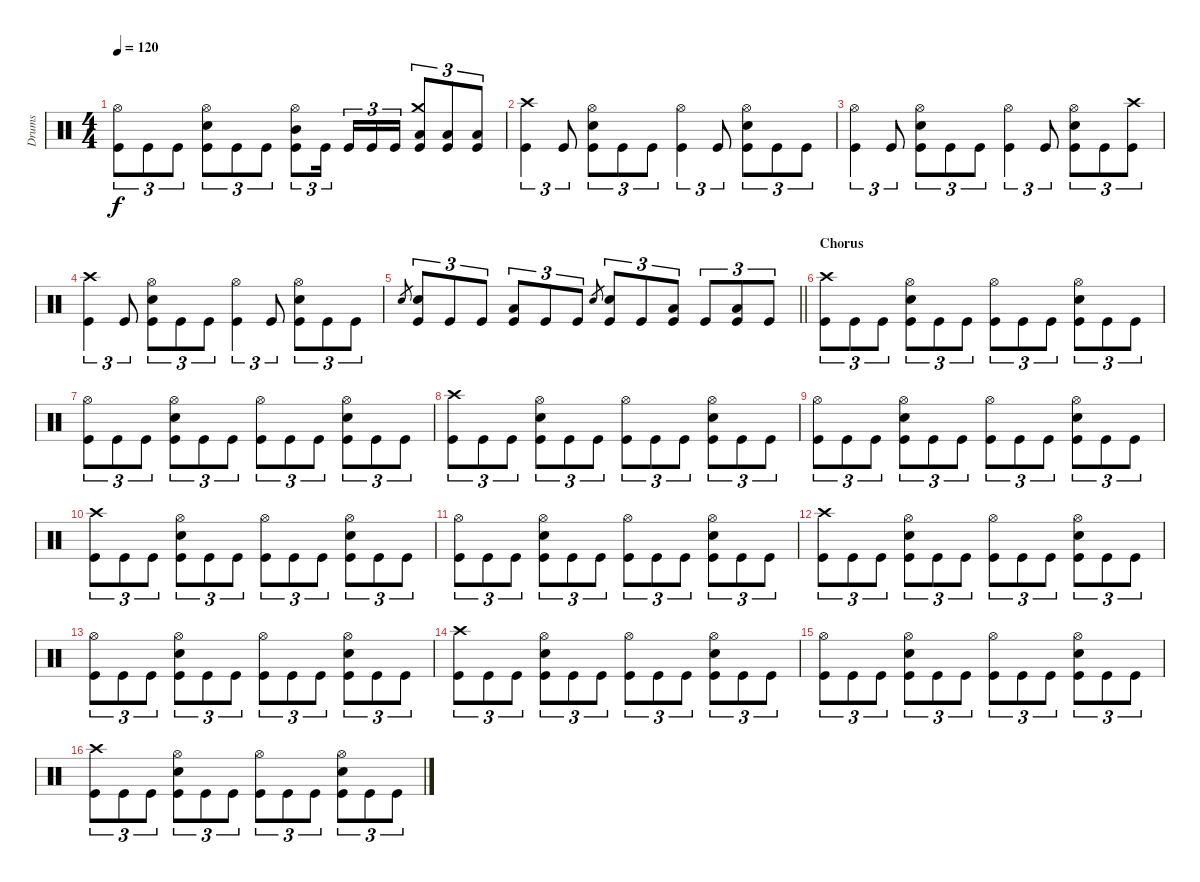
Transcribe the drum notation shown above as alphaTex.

\track ("Drums" "Drums") {instrument percussion}
\staff {score}
\articulation defaults
\ts (4 4)
\tempo 120
\clef neutral
\ks c
("Hi-Hat (open)" "Kick (hit)").8{tu (3 2) dy f} "Kick (hit)".8{tu (3 2)} "Kick (hit)".8{tu (3 2)} ("Hi-Hat (open)" "Snare (hit) 2" "Kick (hit)").8{tu (3 2)} "Kick (hit)".8{tu (3 2)} "Kick (hit)".8{tu (3 2)} ("Hi-Hat (open)" "Mid Tom (hit)" "Kick (hit)").8{tu (3 2)} "Kick (hit)".16{tu (3 2)} "Kick (hit)".16{tu (3 2)} "Kick (hit)".16{tu (3 2)} "Kick (hit)".16{tu (3 2)} ("Crash medium (hit)" "Low Tom (hit)" "Kick (hit)").8{tu (3 2)} ("Low Tom (hit)" "Kick (hit)").8{tu (3 2)} ("Low Tom (hit)" "Kick (hit)").8{tu (3 2)} |
("Crash high (hit)" "Kick (hit)").4{tu (3 2)} "Kick (hit)".8{tu (3 2)} ("Hi-Hat (open)" "Snare (hit) 2" "Kick (hit)").8{tu (3 2)} "Kick (hit)".8{tu (3 2)} "Kick (hit)".8{tu (3 2)} ("Hi-Hat (open)" "Kick (hit)").4{tu (3 2)} "Kick (hit)".8{tu (3 2)} ("Hi-Hat (open)" "Snare (hit) 2" "Kick (hit)").8{tu (3 2)} "Kick (hit)".8{tu (3 2)} "Kick (hit)".8{tu (3 2)} |
("Hi-Hat (open)" "Kick (hit)").4{tu (3 2)} "Kick (hit)".8{tu (3 2)} ("Hi-Hat (open)" "Snare (hit) 2" "Kick (hit)").8{tu (3 2)} "Kick (hit)".8{tu (3 2)} "Kick (hit)".8{tu (3 2)} ("Hi-Hat (open)" "Kick (hit)").4{tu (3 2)} "Kick (hit)".8{tu (3 2)} ("Hi-Hat (open)" "Snare (hit) 2" "Kick (hit)").8{tu (3 2)} "Kick (hit)".8{tu (3 2)} ("Crash high (hit)" "Kick (hit)").8{tu (3 2)} |
("Crash high (hit)" "Kick (hit)").4{tu (3 2)} "Kick (hit)".8{tu (3 2)} ("Hi-Hat (open)" "Snare (hit) 2" "Kick (hit)").8{tu (3 2)} "Kick (hit)".8{tu (3 2)} "Kick (hit)".8{tu (3 2)} ("Hi-Hat (open)" "Kick (hit)").4{tu (3 2)} "Kick (hit)".8{tu (3 2)} ("Hi-Hat (open)" "Snare (hit) 2" "Kick (hit)").8{tu (3 2)} "Kick (hit)".8{tu (3 2)} "Kick (hit)".8{tu (3 2)} |
\barLineRight lightlight "Snare (hit) 2".8{gr}
("Snare (hit) 2" "Kick (hit)").8{tu (3 2)} "Kick (hit)".8{tu (3 2)} "Kick (hit)".8{tu (3 2)} ("Low Tom (hit)" "Kick (hit)").8{tu (3 2)} "Kick (hit)".8{tu (3 2)} "Kick (hit)".8{tu (3 2)} "Snare (hit) 2".8{gr} ("Snare (hit) 2" "Kick (hit)").8{tu (3 2)} "Kick (hit)".8{tu (3 2)} ("Low Tom (hit)" "Kick (hit)").8{tu (3 2)} "Kick (hit)".8{tu (3 2)} ("Low Tom (hit)" "Kick (hit)").8{tu (3 2)} "Kick (hit)".8{tu (3 2)} |
\section ("" "Chorus")
("Crash high (hit)" "Kick (hit)").8{tu (3 2)} "Kick (hit)".8{tu (3 2)} "Kick (hit)".8{tu (3 2)} ("Hi-Hat (open)" "Snare (hit) 2" "Kick (hit)").8{tu (3 2)} "Kick (hit)".8{tu (3 2)} "Kick (hit)".8{tu (3 2)} ("Hi-Hat (open)" "Kick (hit)").8{tu (3 2)} "Kick (hit)".8{tu (3 2)} "Kick (hit)".8{tu (3 2)} ("Hi-Hat (open)" "Snare (hit) 2" "Kick (hit)").8{tu (3 2)} "Kick (hit)".8{tu (3 2)} "Kick (hit)".8{tu (3 2)} |
("Hi-Hat (open)" "Kick (hit)").8{tu (3 2)} "Kick (hit)".8{tu (3 2)} "Kick (hit)".8{tu (3 2)} ("Hi-Hat (open)" "Snare (hit) 2" "Kick (hit)").8{tu (3 2)} "Kick (hit)".8{tu (3 2)} "Kick (hit)".8{tu (3 2)} ("Hi-Hat (open)" "Kick (hit)").8{tu (3 2)} "Kick (hit)".8{tu (3 2)} "Kick (hit)".8{tu (3 2)} ("Hi-Hat (open)" "Snare (hit) 2" "Kick (hit)").8{tu (3 2)} "Kick (hit)".8{tu (3 2)} "Kick (hit)".8{tu (3 2)} |
("Crash high (hit)" "Kick (hit)").8{tu (3 2)} "Kick (hit)".8{tu (3 2)} "Kick (hit)".8{tu (3 2)} ("Hi-Hat (open)" "Snare (hit) 2" "Kick (hit)").8{tu (3 2)} "Kick (hit)".8{tu (3 2)} "Kick (hit)".8{tu (3 2)} ("Hi-Hat (open)" "Kick (hit)").8{tu (3 2)} "Kick (hit)".8{tu (3 2)} "Kick (hit)".8{tu (3 2)} ("Hi-Hat (open)" "Snare (hit) 2" "Kick (hit)").8{tu (3 2)} "Kick (hit)".8{tu (3 2)} "Kick (hit)".8{tu (3 2)} |
("Hi-Hat (open)" "Kick (hit)").8{tu (3 2)} "Kick (hit)".8{tu (3 2)} "Kick (hit)".8{tu (3 2)} ("Hi-Hat (open)" "Snare (hit) 2" "Kick (hit)").8{tu (3 2)} "Kick (hit)".8{tu (3 2)} "Kick (hit)".8{tu (3 2)} ("Hi-Hat (open)" "Kick (hit)").8{tu (3 2)} "Kick (hit)".8{tu (3 2)} "Kick (hit)".8{tu (3 2)} ("Hi-Hat (open)" "Snare (hit) 2" "Kick (hit)").8{tu (3 2)} "Kick (hit)".8{tu (3 2)} "Kick (hit)".8{tu (3 2)} |
("Crash high (hit)" "Kick (hit)").8{tu (3 2)} "Kick (hit)".8{tu (3 2)} "Kick (hit)".8{tu (3 2)} ("Hi-Hat (open)" "Snare (hit) 2" "Kick (hit)").8{tu (3 2)} "Kick (hit)".8{tu (3 2)} "Kick (hit)".8{tu (3 2)} ("Hi-Hat (open)" "Kick (hit)").8{tu (3 2)} "Kick (hit)".8{tu (3 2)} "Kick (hit)".8{tu (3 2)} ("Hi-Hat (open)" "Snare (hit) 2" "Kick (hit)").8{tu (3 2)} "Kick (hit)".8{tu (3 2)} "Kick (hit)".8{tu (3 2)} |
("Hi-Hat (open)" "Kick (hit)").8{tu (3 2)} "Kick (hit)".8{tu (3 2)} "Kick (hit)".8{tu (3 2)} ("Hi-Hat (open)" "Snare (hit) 2" "Kick (hit)").8{tu (3 2)} "Kick (hit)".8{tu (3 2)} "Kick (hit)".8{tu (3 2)} ("Hi-Hat (open)" "Kick (hit)").8{tu (3 2)} "Kick (hit)".8{tu (3 2)} "Kick (hit)".8{tu (3 2)} ("Hi-Hat (open)" "Snare (hit) 2" "Kick (hit)").8{tu (3 2)} "Kick (hit)".8{tu (3 2)} "Kick (hit)".8{tu (3 2)} |
("Crash high (hit)" "Kick (hit)").8{tu (3 2)} "Kick (hit)".8{tu (3 2)} "Kick (hit)".8{tu (3 2)} ("Hi-Hat (open)" "Snare (hit) 2" "Kick (hit)").8{tu (3 2)} "Kick (hit)".8{tu (3 2)} "Kick (hit)".8{tu (3 2)} ("Hi-Hat (open)" "Kick (hit)").8{tu (3 2)} "Kick (hit)".8{tu (3 2)} "Kick (hit)".8{tu (3 2)} ("Hi-Hat (open)" "Snare (hit) 2" "Kick (hit)").8{tu (3 2)} "Kick (hit)".8{tu (3 2)} "Kick (hit)".8{tu (3 2)} |
("Hi-Hat (open)" "Kick (hit)").8{tu (3 2)} "Kick (hit)".8{tu (3 2)} "Kick (hit)".8{tu (3 2)} ("Hi-Hat (open)" "Snare (hit) 2" "Kick (hit)").8{tu (3 2)} "Kick (hit)".8{tu (3 2)} "Kick (hit)".8{tu (3 2)} ("Hi-Hat (open)" "Kick (hit)").8{tu (3 2)} "Kick (hit)".8{tu (3 2)} "Kick (hit)".8{tu (3 2)} ("Hi-Hat (open)" "Snare (hit) 2" "Kick (hit)").8{tu (3 2)} "Kick (hit)".8{tu (3 2)} "Kick (hit)".8{tu (3 2)} |
("Crash high (hit)" "Kick (hit)").8{tu (3 2)} "Kick (hit)".8{tu (3 2)} "Kick (hit)".8{tu (3 2)} ("Hi-Hat (open)" "Snare (hit) 2" "Kick (hit)").8{tu (3 2)} "Kick (hit)".8{tu (3 2)} "Kick (hit)".8{tu (3 2)} ("Hi-Hat (open)" "Kick (hit)").8{tu (3 2)} "Kick (hit)".8{tu (3 2)} "Kick (hit)".8{tu (3 2)} ("Hi-Hat (open)" "Snare (hit) 2" "Kick (hit)").8{tu (3 2)} "Kick (hit)".8{tu (3 2)} "Kick (hit)".8{tu (3 2)} |
("Hi-Hat (open)" "Kick (hit)").8{tu (3 2)} "Kick (hit)".8{tu (3 2)} "Kick (hit)".8{tu (3 2)} ("Hi-Hat (open)" "Snare (hit) 2" "Kick (hit)").8{tu (3 2)} "Kick (hit)".8{tu (3 2)} "Kick (hit)".8{tu (3 2)} ("Hi-Hat (open)" "Kick (hit)").8{tu (3 2)} "Kick (hit)".8{tu (3 2)} "Kick (hit)".8{tu (3 2)} ("Hi-Hat (open)" "Snare (hit) 2" "Kick (hit)").8{tu (3 2)} "Kick (hit)".8{tu (3 2)} "Kick (hit)".8{tu (3 2)} |
("Crash high (hit)" "Kick (hit)").8{tu (3 2)} "Kick (hit)".8{tu (3 2)} "Kick (hit)".8{tu (3 2)} ("Hi-Hat (open)" "Snare (hit) 2" "Kick (hit)").8{tu (3 2)} "Kick (hit)".8{tu (3 2)} "Kick (hit)".8{tu (3 2)} ("Hi-Hat (open)" "Kick (hit)").8{tu (3 2)} "Kick (hit)".8{tu (3 2)} "Kick (hit)".8{tu (3 2)} ("Hi-Hat (open)" "Snare (hit) 2" "Kick (hit)").8{tu (3 2)} "Kick (hit)".8{tu (3 2)} "Kick (hit)".8{tu (3 2)}
